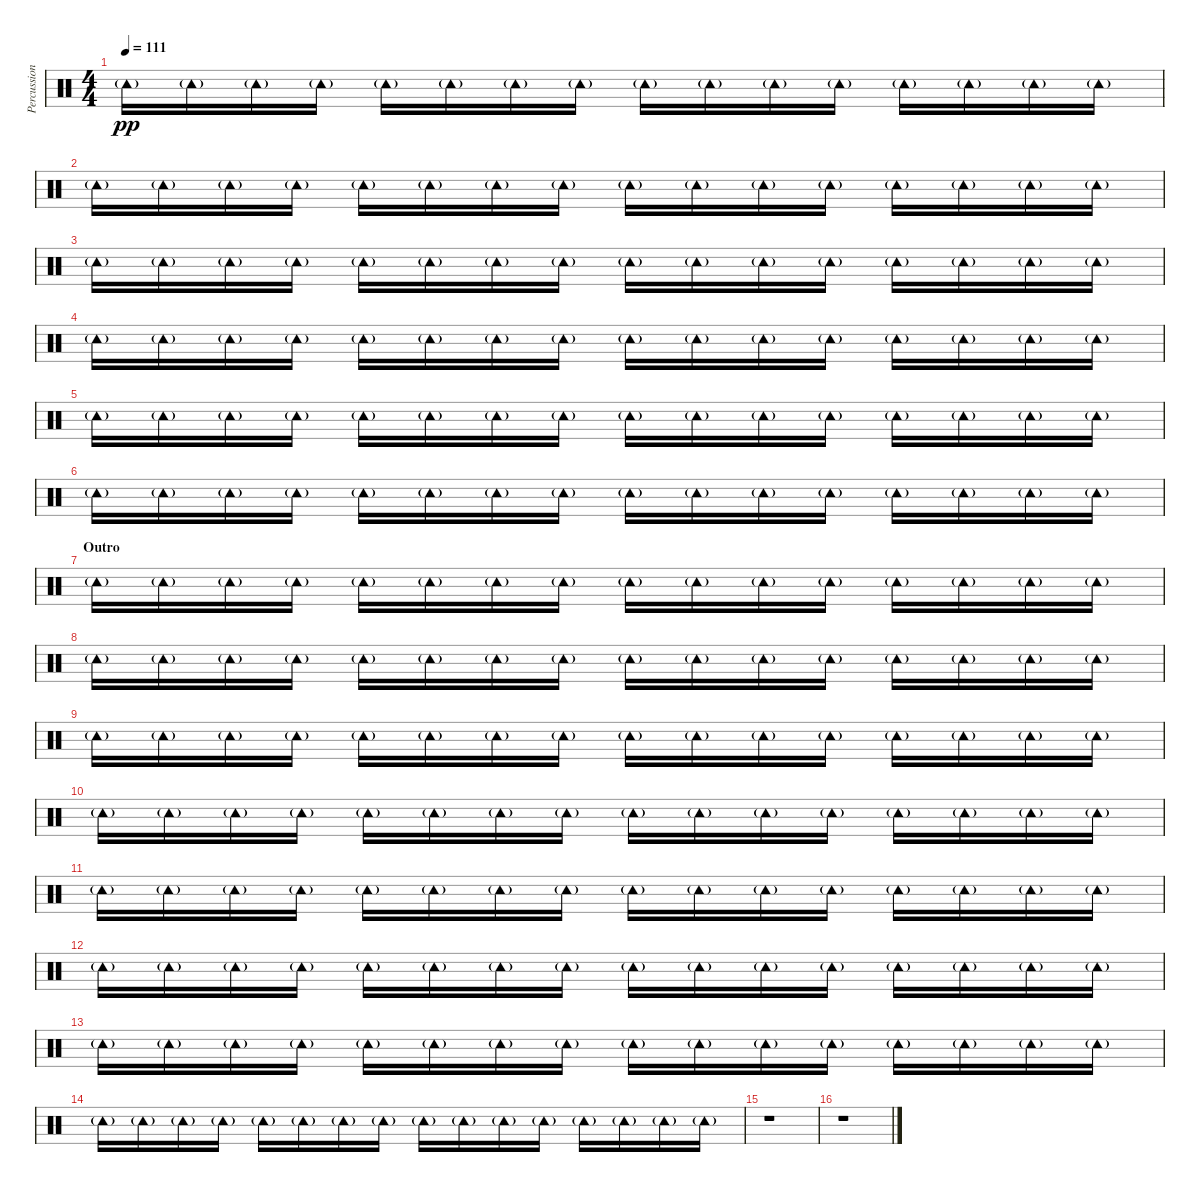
\track ("Percussion" "Percussion") {instrument percussion}
\staff {score}
\articulation defaults
\ts (4 4)
\tempo 111
\clef neutral
\ks c "Tambourine (hit)"{g}.16{dy pp} "Tambourine (hit)"{g}.16 "Tambourine (hit)"{g}.16 "Tambourine (hit)"{g}.16 "Tambourine (hit)"{g}.16 "Tambourine (hit)"{g}.16 "Tambourine (hit)"{g}.16 "Tambourine (hit)"{g}.16 "Tambourine (hit)"{g}.16 "Tambourine (hit)"{g}.16 "Tambourine (hit)"{g}.16 "Tambourine (hit)"{g}.16 "Tambourine (hit)"{g}.16 "Tambourine (hit)"{g}.16 "Tambourine (hit)"{g}.16 "Tambourine (hit)"{g}.16
|
"Tambourine (hit)"{g}.16 "Tambourine (hit)"{g}.16 "Tambourine (hit)"{g}.16 "Tambourine (hit)"{g}.16 "Tambourine (hit)"{g}.16 "Tambourine (hit)"{g}.16 "Tambourine (hit)"{g}.16 "Tambourine (hit)"{g}.16 "Tambourine (hit)"{g}.16 "Tambourine (hit)"{g}.16 "Tambourine (hit)"{g}.16 "Tambourine (hit)"{g}.16 "Tambourine (hit)"{g}.16 "Tambourine (hit)"{g}.16 "Tambourine (hit)"{g}.16 "Tambourine (hit)"{g}.16 |
"Tambourine (hit)"{g}.16 "Tambourine (hit)"{g}.16 "Tambourine (hit)"{g}.16 "Tambourine (hit)"{g}.16 "Tambourine (hit)"{g}.16 "Tambourine (hit)"{g}.16 "Tambourine (hit)"{g}.16 "Tambourine (hit)"{g}.16 "Tambourine (hit)"{g}.16 "Tambourine (hit)"{g}.16 "Tambourine (hit)"{g}.16 "Tambourine (hit)"{g}.16 "Tambourine (hit)"{g}.16 "Tambourine (hit)"{g}.16 "Tambourine (hit)"{g}.16 "Tambourine (hit)"{g}.16 |
"Tambourine (hit)"{g}.16 "Tambourine (hit)"{g}.16 "Tambourine (hit)"{g}.16 "Tambourine (hit)"{g}.16 "Tambourine (hit)"{g}.16 "Tambourine (hit)"{g}.16 "Tambourine (hit)"{g}.16 "Tambourine (hit)"{g}.16 "Tambourine (hit)"{g}.16 "Tambourine (hit)"{g}.16 "Tambourine (hit)"{g}.16 "Tambourine (hit)"{g}.16 "Tambourine (hit)"{g}.16 "Tambourine (hit)"{g}.16 "Tambourine (hit)"{g}.16 "Tambourine (hit)"{g}.16 |
"Tambourine (hit)"{g}.16 "Tambourine (hit)"{g}.16 "Tambourine (hit)"{g}.16 "Tambourine (hit)"{g}.16 "Tambourine (hit)"{g}.16 "Tambourine (hit)"{g}.16 "Tambourine (hit)"{g}.16 "Tambourine (hit)"{g}.16 "Tambourine (hit)"{g}.16 "Tambourine (hit)"{g}.16 "Tambourine (hit)"{g}.16 "Tambourine (hit)"{g}.16 "Tambourine (hit)"{g}.16 "Tambourine (hit)"{g}.16 "Tambourine (hit)"{g}.16 "Tambourine (hit)"{g}.16 |
"Tambourine (hit)"{g}.16 "Tambourine (hit)"{g}.16 "Tambourine (hit)"{g}.16 "Tambourine (hit)"{g}.16 "Tambourine (hit)"{g}.16 "Tambourine (hit)"{g}.16 "Tambourine (hit)"{g}.16 "Tambourine (hit)"{g}.16 "Tambourine (hit)"{g}.16 "Tambourine (hit)"{g}.16 "Tambourine (hit)"{g}.16 "Tambourine (hit)"{g}.16 "Tambourine (hit)"{g}.16 "Tambourine (hit)"{g}.16 "Tambourine (hit)"{g}.16 "Tambourine (hit)"{g}.16 |
\section ("" "Outro")
"Tambourine (hit)"{g}.16 "Tambourine (hit)"{g}.16 "Tambourine (hit)"{g}.16 "Tambourine (hit)"{g}.16 "Tambourine (hit)"{g}.16 "Tambourine (hit)"{g}.16 "Tambourine (hit)"{g}.16 "Tambourine (hit)"{g}.16 "Tambourine (hit)"{g}.16 "Tambourine (hit)"{g}.16 "Tambourine (hit)"{g}.16 "Tambourine (hit)"{g}.16 "Tambourine (hit)"{g}.16 "Tambourine (hit)"{g}.16 "Tambourine (hit)"{g}.16 "Tambourine (hit)"{g}.16 |
"Tambourine (hit)"{g}.16 "Tambourine (hit)"{g}.16 "Tambourine (hit)"{g}.16 "Tambourine (hit)"{g}.16 "Tambourine (hit)"{g}.16 "Tambourine (hit)"{g}.16 "Tambourine (hit)"{g}.16 "Tambourine (hit)"{g}.16 "Tambourine (hit)"{g}.16 "Tambourine (hit)"{g}.16 "Tambourine (hit)"{g}.16 "Tambourine (hit)"{g}.16 "Tambourine (hit)"{g}.16 "Tambourine (hit)"{g}.16 "Tambourine (hit)"{g}.16 "Tambourine (hit)"{g}.16 |
"Tambourine (hit)"{g}.16 "Tambourine (hit)"{g}.16 "Tambourine (hit)"{g}.16 "Tambourine (hit)"{g}.16 "Tambourine (hit)"{g}.16 "Tambourine (hit)"{g}.16 "Tambourine (hit)"{g}.16 "Tambourine (hit)"{g}.16 "Tambourine (hit)"{g}.16 "Tambourine (hit)"{g}.16 "Tambourine (hit)"{g}.16 "Tambourine (hit)"{g}.16 "Tambourine (hit)"{g}.16 "Tambourine (hit)"{g}.16 "Tambourine (hit)"{g}.16 "Tambourine (hit)"{g}.16 |
"Tambourine (hit)"{g}.16 "Tambourine (hit)"{g}.16 "Tambourine (hit)"{g}.16 "Tambourine (hit)"{g}.16 "Tambourine (hit)"{g}.16 "Tambourine (hit)"{g}.16 "Tambourine (hit)"{g}.16 "Tambourine (hit)"{g}.16 "Tambourine (hit)"{g}.16 "Tambourine (hit)"{g}.16 "Tambourine (hit)"{g}.16 "Tambourine (hit)"{g}.16 "Tambourine (hit)"{g}.16 "Tambourine (hit)"{g}.16 "Tambourine (hit)"{g}.16 "Tambourine (hit)"{g}.16 |
"Tambourine (hit)"{g}.16 "Tambourine (hit)"{g}.16 "Tambourine (hit)"{g}.16 "Tambourine (hit)"{g}.16 "Tambourine (hit)"{g}.16 "Tambourine (hit)"{g}.16 "Tambourine (hit)"{g}.16 "Tambourine (hit)"{g}.16 "Tambourine (hit)"{g}.16 "Tambourine (hit)"{g}.16 "Tambourine (hit)"{g}.16 "Tambourine (hit)"{g}.16 "Tambourine (hit)"{g}.16 "Tambourine (hit)"{g}.16 "Tambourine (hit)"{g}.16 "Tambourine (hit)"{g}.16 |
"Tambourine (hit)"{g}.16 "Tambourine (hit)"{g}.16 "Tambourine (hit)"{g}.16 "Tambourine (hit)"{g}.16 "Tambourine (hit)"{g}.16 "Tambourine (hit)"{g}.16 "Tambourine (hit)"{g}.16 "Tambourine (hit)"{g}.16 "Tambourine (hit)"{g}.16 "Tambourine (hit)"{g}.16 "Tambourine (hit)"{g}.16 "Tambourine (hit)"{g}.16 "Tambourine (hit)"{g}.16 "Tambourine (hit)"{g}.16 "Tambourine (hit)"{g}.16 "Tambourine (hit)"{g}.16 |
"Tambourine (hit)"{g}.16 "Tambourine (hit)"{g}.16 "Tambourine (hit)"{g}.16 "Tambourine (hit)"{g}.16 "Tambourine (hit)"{g}.16 "Tambourine (hit)"{g}.16 "Tambourine (hit)"{g}.16 "Tambourine (hit)"{g}.16 "Tambourine (hit)"{g}.16 "Tambourine (hit)"{g}.16 "Tambourine (hit)"{g}.16 "Tambourine (hit)"{g}.16 "Tambourine (hit)"{g}.16 "Tambourine (hit)"{g}.16 "Tambourine (hit)"{g}.16 "Tambourine (hit)"{g}.16 |
"Tambourine (hit)"{g}.16 "Tambourine (hit)"{g}.16 "Tambourine (hit)"{g}.16 "Tambourine (hit)"{g}.16 "Tambourine (hit)"{g}.16 "Tambourine (hit)"{g}.16 "Tambourine (hit)"{g}.16 "Tambourine (hit)"{g}.16 "Tambourine (hit)"{g}.16 "Tambourine (hit)"{g}.16 "Tambourine (hit)"{g}.16 "Tambourine (hit)"{g}.16 "Tambourine (hit)"{g}.16 "Tambourine (hit)"{g}.16 "Tambourine (hit)"{g}.16 "Tambourine (hit)"{g}.16 |
r.1 |
r.1
